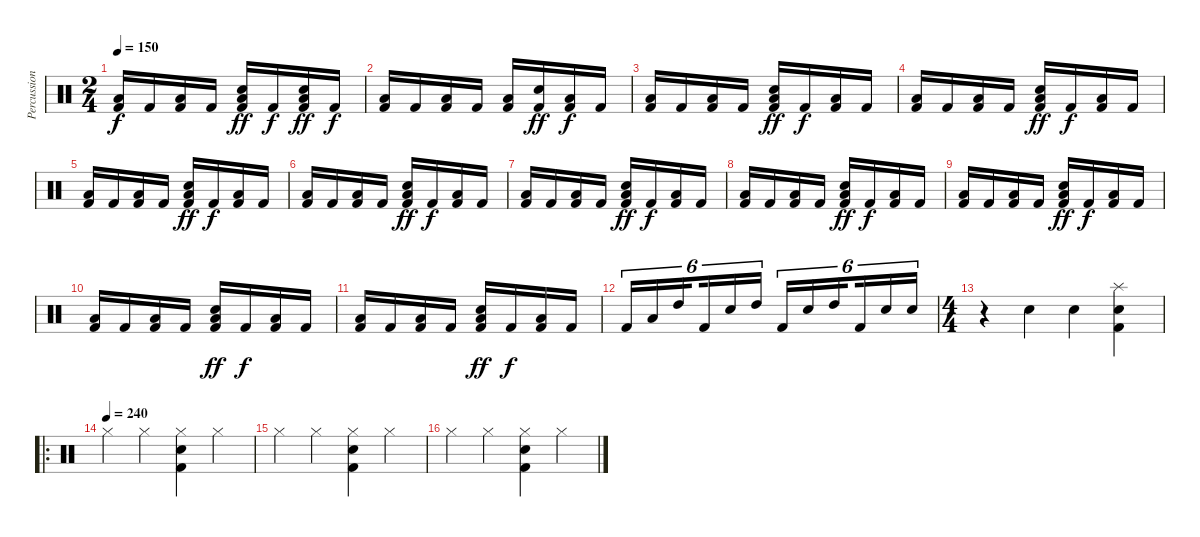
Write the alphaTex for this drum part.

\track ("Percussion" "Percussion") {instrument percussion}
\staff {score}
\articulation defaults
\ts (2 4)
\tempo 150
\clef neutral
\ks c
("Kick (hit) 2" "Low Tom (hit)").16{dy f} "Kick (hit) 2".16 ("Kick (hit) 2" "Low Tom (hit)").16 "Kick (hit) 2".16 ("Kick (hit) 2" "Snare (hit) 2" "Low Tom (hit)").16{dy ff} "Kick (hit) 2".16{dy f} ("Kick (hit) 2" "Snare (hit) 2" "Low Tom (hit)").16{dy ff} "Kick (hit) 2".16{dy f} |
("Kick (hit) 2" "Low Tom (hit)").16 "Kick (hit) 2".16 ("Kick (hit) 2" "Low Tom (hit)").16 "Kick (hit) 2".16 ("Kick (hit) 2" "Low Tom (hit)").16 ("Kick (hit) 2" "Snare (hit) 2").16{dy ff} ("Kick (hit) 2" "Low Tom (hit)").16{dy f} "Kick (hit) 2".16 |
("Kick (hit) 2" "Low Tom (hit)").16 "Kick (hit) 2".16 ("Kick (hit) 2" "Low Tom (hit)").16 "Kick (hit) 2".16 ("Kick (hit) 2" "Snare (hit) 2" "Low Tom (hit)").16{dy ff} "Kick (hit) 2".16{dy f} ("Kick (hit) 2" "Low Tom (hit)").16 "Kick (hit) 2".16 |
("Kick (hit) 2" "Low Tom (hit)").16 "Kick (hit) 2".16 ("Kick (hit) 2" "Low Tom (hit)").16 "Kick (hit) 2".16 ("Kick (hit) 2" "Snare (hit) 2" "Low Tom (hit)").16{dy ff} "Kick (hit) 2".16{dy f} ("Kick (hit) 2" "Low Tom (hit)").16 "Kick (hit) 2".16 |
("Kick (hit) 2" "Low Tom (hit)").16 "Kick (hit) 2".16 ("Kick (hit) 2" "Low Tom (hit)").16 "Kick (hit) 2".16 ("Kick (hit) 2" "Snare (hit) 2" "Low Tom (hit)").16{dy ff} "Kick (hit) 2".16{dy f} ("Kick (hit) 2" "Low Tom (hit)").16 "Kick (hit) 2".16 |
("Kick (hit) 2" "Low Tom (hit)").16 "Kick (hit) 2".16 ("Kick (hit) 2" "Low Tom (hit)").16 "Kick (hit) 2".16 ("Kick (hit) 2" "Snare (hit) 2" "Low Tom (hit)").16{dy ff} "Kick (hit) 2".16{dy f} ("Kick (hit) 2" "Low Tom (hit)").16 "Kick (hit) 2".16 |
("Kick (hit) 2" "Low Tom (hit)").16 "Kick (hit) 2".16 ("Kick (hit) 2" "Low Tom (hit)").16 "Kick (hit) 2".16 ("Kick (hit) 2" "Snare (hit) 2" "Low Tom (hit)").16{dy ff} "Kick (hit) 2".16{dy f} ("Kick (hit) 2" "Low Tom (hit)").16 "Kick (hit) 2".16 |
("Kick (hit) 2" "Low Tom (hit)").16 "Kick (hit) 2".16 ("Kick (hit) 2" "Low Tom (hit)").16 "Kick (hit) 2".16 ("Kick (hit) 2" "Snare (hit) 2" "Low Tom (hit)").16{dy ff} "Kick (hit) 2".16{dy f} ("Kick (hit) 2" "Low Tom (hit)").16 "Kick (hit) 2".16 |
("Kick (hit) 2" "Low Tom (hit)").16 "Kick (hit) 2".16 ("Kick (hit) 2" "Low Tom (hit)").16 "Kick (hit) 2".16 ("Kick (hit) 2" "Snare (hit) 2" "Low Tom (hit)").16{dy ff} "Kick (hit) 2".16{dy f} ("Kick (hit) 2" "Low Tom (hit)").16 "Kick (hit) 2".16 |
("Kick (hit) 2" "Low Tom (hit)").16 "Kick (hit) 2".16 ("Kick (hit) 2" "Low Tom (hit)").16 "Kick (hit) 2".16 ("Kick (hit) 2" "Snare (hit) 2" "Low Tom (hit)").16{dy ff} "Kick (hit) 2".16{dy f} ("Kick (hit) 2" "Low Tom (hit)").16 "Kick (hit) 2".16 |
("Kick (hit) 2" "Low Tom (hit)").16 "Kick (hit) 2".16 ("Kick (hit) 2" "Low Tom (hit)").16 "Kick (hit) 2".16 ("Kick (hit) 2" "Snare (hit) 2" "Low Tom (hit)").16{dy ff} "Kick (hit) 2".16{dy f} ("Kick (hit) 2" "Low Tom (hit)").16 "Kick (hit) 2".16 |
"Kick (hit) 2".16{tu (6 4)} "Low Tom (hit)".16{tu (6 4)} "High Tom (hit)".16{tu (6 4) beam splitsecondary} "Kick (hit) 2".16{tu (6 4)} "Snare (hit) 2".16{tu (6 4)} "High Tom (hit)".16{tu (6 4)} "Kick (hit) 2".16{tu (6 4)} "Metronome (bell)".16{tu (6 4)} "High Tom (hit)".16{tu (6 4) beam splitsecondary} "Kick (hit) 2".16{tu (6 4)} "Snare (hit) 2".16{tu (6 4)} "Snare (hit) 2".16{tu (6 4)} |
\ts (4 4)
r.4 "Snare (hit) 2".4 "Snare (hit) 2".4 ("Snare (hit) 2" "Kick (hit) 2" "Splash (hit)").4 |
\ro
\tempo (240)
"Hi-Hat (closed)".4 "Hi-Hat (closed)".4 ("Kick (hit) 2" "Snare (hit) 2" "Hi-Hat (closed)").4 "Hi-Hat (closed)".4 |
"Hi-Hat (closed)".4 "Hi-Hat (closed)".4 ("Kick (hit) 2" "Snare (hit) 2" "Hi-Hat (closed)").4 "Hi-Hat (closed)".4 |
"Hi-Hat (closed)".4 "Hi-Hat (closed)".4 ("Kick (hit) 2" "Snare (hit) 2" "Hi-Hat (closed)").4 "Hi-Hat (closed)".4
